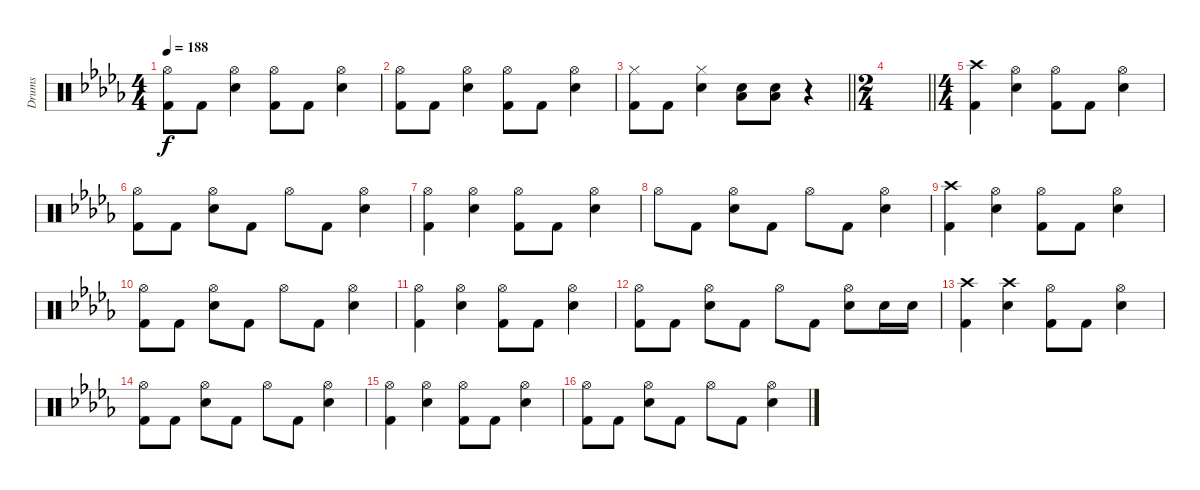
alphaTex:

\track ("Drums" "Drums") {instrument percussion}
\staff {score}
\articulation defaults
\ts (4 4)
\tempo 188
\clef neutral
\ks bbminor
("Hi-Hat (open)" "Kick (hit) 2").8{dy f} "Kick (hit) 2".8 ("Hi-Hat (open)" "Electric Snare (hit)").4 ("Hi-Hat (open)" "Kick (hit) 2").8 "Kick (hit) 2".8 ("Hi-Hat (open)" "Electric Snare (hit)").4 |
("Hi-Hat (open)" "Kick (hit) 2").8 "Kick (hit) 2".8 ("Hi-Hat (open)" "Electric Snare (hit)").4 ("Hi-Hat (open)" "Kick (hit) 2").8 "Kick (hit) 2".8 ("Hi-Hat (open)" "Electric Snare (hit)").4 |
\barLineRight lightlight
("Hi-Hat (closed)" "Kick (hit) 2").8 "Kick (hit) 2".8 ("Hi-Hat (closed)" "Electric Snare (hit)").4 ("Electric Snare (hit)" "Low Floor Tom (hit)").8 ("Electric Snare (hit)" "Low Floor Tom (hit)").8 r.4 |
\ts (2 4)
\barLineRight lightlight
|
\ts (4 4)
("Crash high (hit)" "Kick (hit) 2").4 ("Hi-Hat (open)" "Electric Snare (hit)").4 ("Hi-Hat (open)" "Kick (hit) 2").8 "Kick (hit) 2".8 ("Hi-Hat (open)" "Electric Snare (hit)").4 |
("Hi-Hat (open)" "Kick (hit) 2").8 "Kick (hit) 2".8 ("Hi-Hat (open)" "Electric Snare (hit)").8 "Kick (hit) 2".8 "Hi-Hat (open)".8 "Kick (hit) 2".8 ("Hi-Hat (open)" "Electric Snare (hit)").4 |
("Hi-Hat (open)" "Kick (hit) 2").4 ("Hi-Hat (open)" "Electric Snare (hit)").4 ("Hi-Hat (open)" "Kick (hit) 2").8 "Kick (hit) 2".8 ("Hi-Hat (open)" "Electric Snare (hit)").4 |
"Hi-Hat (open)".8 "Kick (hit) 2".8 ("Hi-Hat (open)" "Electric Snare (hit)").8 "Kick (hit) 2".8 "Hi-Hat (open)".8 "Kick (hit) 2".8 ("Hi-Hat (open)" "Electric Snare (hit)").4 |
("Crash high (hit)" "Kick (hit) 2").4 ("Hi-Hat (open)" "Electric Snare (hit)").4 ("Hi-Hat (open)" "Kick (hit) 2").8 "Kick (hit) 2".8 ("Hi-Hat (open)" "Electric Snare (hit)").4 |
("Hi-Hat (open)" "Kick (hit) 2").8 "Kick (hit) 2".8 ("Hi-Hat (open)" "Electric Snare (hit)").8 "Kick (hit) 2".8 "Hi-Hat (open)".8 "Kick (hit) 2".8 ("Hi-Hat (open)" "Electric Snare (hit)").4 |
("Hi-Hat (open)" "Kick (hit) 2").4 ("Hi-Hat (open)" "Electric Snare (hit)").4 ("Hi-Hat (open)" "Kick (hit) 2").8 "Kick (hit) 2".8 ("Hi-Hat (open)" "Electric Snare (hit)").4 |
("Hi-Hat (open)" "Kick (hit) 2").8 "Kick (hit) 2".8 ("Hi-Hat (open)" "Electric Snare (hit)").8 "Kick (hit) 2".8 "Hi-Hat (open)".8 "Kick (hit) 2".8 ("Hi-Hat (open)" "Electric Snare (hit)").8 "Electric Snare (hit)".16 "Electric Snare (hit)".16 |
("Crash high (hit)" "Kick (hit) 2").4 ("Crash high (hit)" "Electric Snare (hit)").4 ("Hi-Hat (open)" "Kick (hit) 2").8 "Kick (hit) 2".8 ("Hi-Hat (open)" "Electric Snare (hit)").4 |
("Hi-Hat (open)" "Kick (hit) 2").8 "Kick (hit) 2".8 ("Hi-Hat (open)" "Electric Snare (hit)").8 "Kick (hit) 2".8 "Hi-Hat (open)".8 "Kick (hit) 2".8 ("Hi-Hat (open)" "Electric Snare (hit)").4 |
("Hi-Hat (open)" "Kick (hit) 2").4 ("Hi-Hat (open)" "Electric Snare (hit)").4 ("Hi-Hat (open)" "Kick (hit) 2").8 "Kick (hit) 2".8 ("Hi-Hat (open)" "Electric Snare (hit)").4 |
("Hi-Hat (open)" "Kick (hit) 2").8 "Kick (hit) 2".8 ("Hi-Hat (open)" "Electric Snare (hit)").8 "Kick (hit) 2".8 "Hi-Hat (open)".8 "Kick (hit) 2".8 ("Hi-Hat (open)" "Electric Snare (hit)").4
